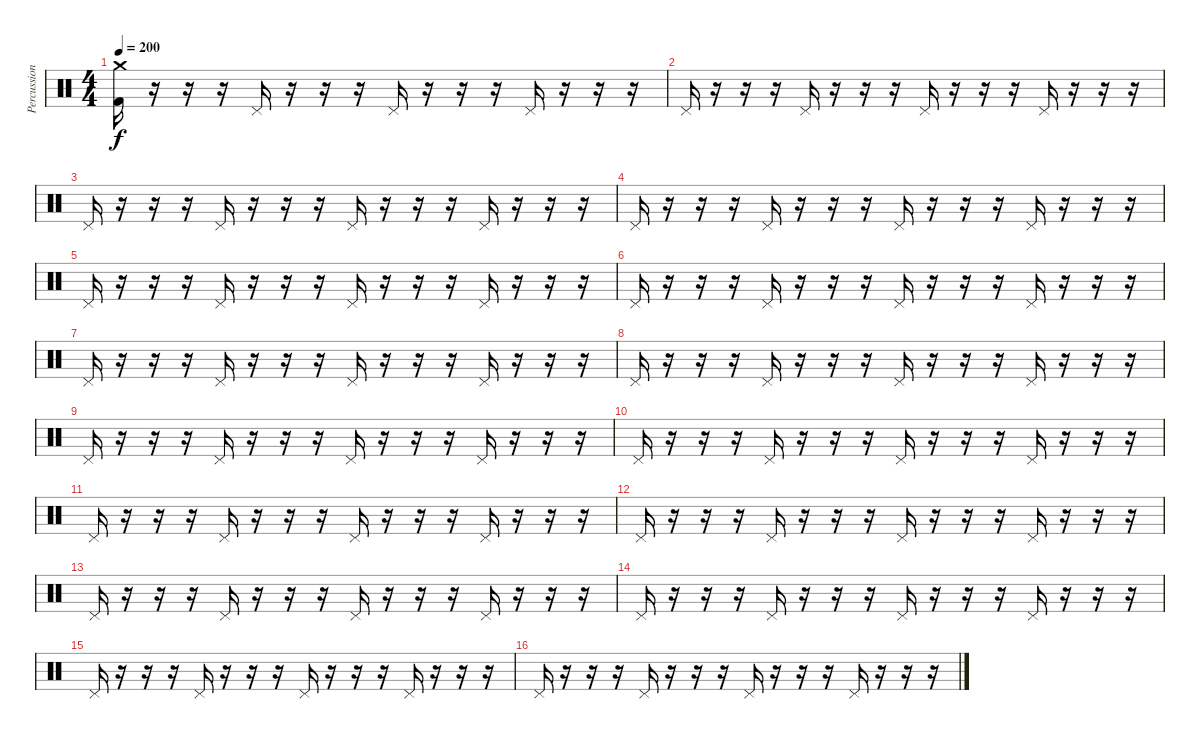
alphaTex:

\track ("Percussion" "Percussion") {instrument percussion}
\staff {score}
\articulation defaults
\ts (4 4)
\tempo 200
\clef neutral
\ks c
("Crash medium (hit)" "Kick (hit) 2").16{dy f} r.16 r.16 r.16 "Pedal Hi-Hat (hit)".16 r.16 r.16 r.16 "Pedal Hi-Hat (hit)".16 r.16 r.16 r.16 "Pedal Hi-Hat (hit)".16 r.16 r.16 r.16 |
"Pedal Hi-Hat (hit)".16 r.16 r.16 r.16 "Pedal Hi-Hat (hit)".16 r.16 r.16 r.16 "Pedal Hi-Hat (hit)".16 r.16 r.16 r.16 "Pedal Hi-Hat (hit)".16 r.16 r.16 r.16 |
"Pedal Hi-Hat (hit)".16 r.16 r.16 r.16 "Pedal Hi-Hat (hit)".16 r.16 r.16 r.16 "Pedal Hi-Hat (hit)".16 r.16 r.16 r.16 "Pedal Hi-Hat (hit)".16 r.16 r.16 r.16 |
"Pedal Hi-Hat (hit)".16 r.16 r.16 r.16 "Pedal Hi-Hat (hit)".16 r.16 r.16 r.16 "Pedal Hi-Hat (hit)".16 r.16 r.16 r.16 "Pedal Hi-Hat (hit)".16 r.16 r.16 r.16 |
"Pedal Hi-Hat (hit)".16 r.16 r.16 r.16 "Pedal Hi-Hat (hit)".16 r.16 r.16 r.16 "Pedal Hi-Hat (hit)".16 r.16 r.16 r.16 "Pedal Hi-Hat (hit)".16 r.16 r.16 r.16 |
"Pedal Hi-Hat (hit)".16 r.16 r.16 r.16 "Pedal Hi-Hat (hit)".16 r.16 r.16 r.16 "Pedal Hi-Hat (hit)".16 r.16 r.16 r.16 "Pedal Hi-Hat (hit)".16 r.16 r.16 r.16 |
"Pedal Hi-Hat (hit)".16 r.16 r.16 r.16 "Pedal Hi-Hat (hit)".16 r.16 r.16 r.16 "Pedal Hi-Hat (hit)".16 r.16 r.16 r.16 "Pedal Hi-Hat (hit)".16 r.16 r.16 r.16 |
"Pedal Hi-Hat (hit)".16 r.16 r.16 r.16 "Pedal Hi-Hat (hit)".16 r.16 r.16 r.16 "Pedal Hi-Hat (hit)".16 r.16 r.16 r.16 "Pedal Hi-Hat (hit)".16 r.16 r.16 r.16 |
"Pedal Hi-Hat (hit)".16 r.16 r.16 r.16 "Pedal Hi-Hat (hit)".16 r.16 r.16 r.16 "Pedal Hi-Hat (hit)".16 r.16 r.16 r.16 "Pedal Hi-Hat (hit)".16 r.16 r.16 r.16 |
"Pedal Hi-Hat (hit)".16 r.16 r.16 r.16 "Pedal Hi-Hat (hit)".16 r.16 r.16 r.16 "Pedal Hi-Hat (hit)".16 r.16 r.16 r.16 "Pedal Hi-Hat (hit)".16 r.16 r.16 r.16 |
"Pedal Hi-Hat (hit)".16 r.16 r.16 r.16 "Pedal Hi-Hat (hit)".16 r.16 r.16 r.16 "Pedal Hi-Hat (hit)".16 r.16 r.16 r.16 "Pedal Hi-Hat (hit)".16 r.16 r.16 r.16 |
"Pedal Hi-Hat (hit)".16 r.16 r.16 r.16 "Pedal Hi-Hat (hit)".16 r.16 r.16 r.16 "Pedal Hi-Hat (hit)".16 r.16 r.16 r.16 "Pedal Hi-Hat (hit)".16 r.16 r.16 r.16 |
"Pedal Hi-Hat (hit)".16 r.16 r.16 r.16 "Pedal Hi-Hat (hit)".16 r.16 r.16 r.16 "Pedal Hi-Hat (hit)".16 r.16 r.16 r.16 "Pedal Hi-Hat (hit)".16 r.16 r.16 r.16 |
"Pedal Hi-Hat (hit)".16 r.16 r.16 r.16 "Pedal Hi-Hat (hit)".16 r.16 r.16 r.16 "Pedal Hi-Hat (hit)".16 r.16 r.16 r.16 "Pedal Hi-Hat (hit)".16 r.16 r.16 r.16 |
"Pedal Hi-Hat (hit)".16 r.16 r.16 r.16 "Pedal Hi-Hat (hit)".16 r.16 r.16 r.16 "Pedal Hi-Hat (hit)".16 r.16 r.16 r.16 "Pedal Hi-Hat (hit)".16 r.16 r.16 r.16 |
"Pedal Hi-Hat (hit)".16 r.16 r.16 r.16 "Pedal Hi-Hat (hit)".16 r.16 r.16 r.16 "Pedal Hi-Hat (hit)".16 r.16 r.16 r.16 "Pedal Hi-Hat (hit)".16 r.16 r.16 r.16
